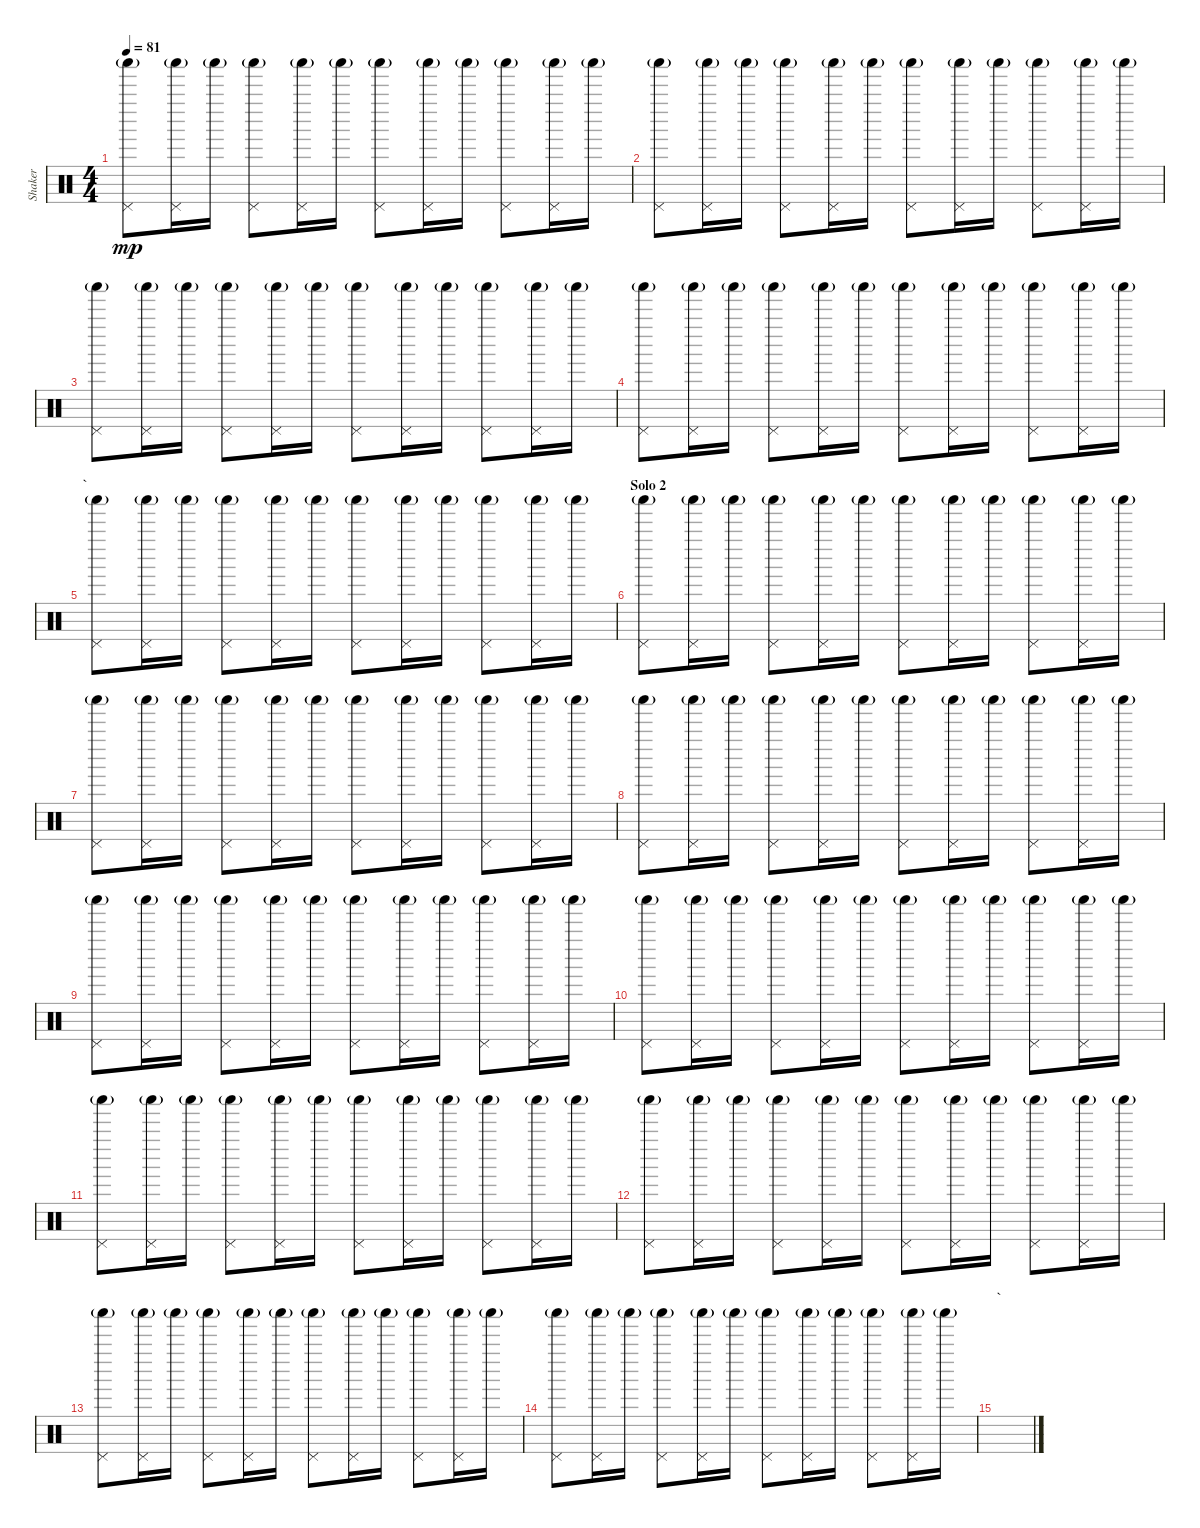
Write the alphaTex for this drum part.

\track ("Shaker" "Shaker") {instrument percussion}
\staff {score}
\articulation defaults
\ts (4 4)
\tempo 81
\clef neutral
\ks c
("Pedal Hi-Hat (hit)" "Shaker (hit)"{g}).8{dy mp} ("Pedal Hi-Hat (hit)" "Shaker (hit)"{g}).16 "Shaker (hit)"{g}.16 ("Pedal Hi-Hat (hit)" "Shaker (hit)"{g}).8 ("Pedal Hi-Hat (hit)" "Shaker (hit)"{g}).16 "Shaker (hit)"{g}.16 ("Pedal Hi-Hat (hit)" "Shaker (hit)"{g}).8 ("Pedal Hi-Hat (hit)" "Shaker (hit)"{g}).16 "Shaker (hit)"{g}.16 ("Pedal Hi-Hat (hit)" "Shaker (hit)"{g}).8 ("Pedal Hi-Hat (hit)" "Shaker (hit)"{g}).16 "Shaker (hit)"{g}.16 |
("Pedal Hi-Hat (hit)" "Shaker (hit)"{g}).8 ("Pedal Hi-Hat (hit)" "Shaker (hit)"{g}).16 "Shaker (hit)"{g}.16 ("Pedal Hi-Hat (hit)" "Shaker (hit)"{g}).8 ("Pedal Hi-Hat (hit)" "Shaker (hit)"{g}).16 "Shaker (hit)"{g}.16 ("Pedal Hi-Hat (hit)" "Shaker (hit)"{g}).8 ("Pedal Hi-Hat (hit)" "Shaker (hit)"{g}).16 "Shaker (hit)"{g}.16 ("Pedal Hi-Hat (hit)" "Shaker (hit)"{g}).8 ("Pedal Hi-Hat (hit)" "Shaker (hit)"{g}).16 "Shaker (hit)"{g}.16 |
("Pedal Hi-Hat (hit)" "Shaker (hit)"{g}).8 ("Pedal Hi-Hat (hit)" "Shaker (hit)"{g}).16 "Shaker (hit)"{g}.16 ("Pedal Hi-Hat (hit)" "Shaker (hit)"{g}).8 ("Pedal Hi-Hat (hit)" "Shaker (hit)"{g}).16 "Shaker (hit)"{g}.16 ("Pedal Hi-Hat (hit)" "Shaker (hit)"{g}).8 ("Pedal Hi-Hat (hit)" "Shaker (hit)"{g}).16 "Shaker (hit)"{g}.16 ("Pedal Hi-Hat (hit)" "Shaker (hit)"{g}).8 ("Pedal Hi-Hat (hit)" "Shaker (hit)"{g}).16 "Shaker (hit)"{g}.16 |
("Pedal Hi-Hat (hit)" "Shaker (hit)"{g}).8 ("Pedal Hi-Hat (hit)" "Shaker (hit)"{g}).16 "Shaker (hit)"{g}.16 ("Pedal Hi-Hat (hit)" "Shaker (hit)"{g}).8 ("Pedal Hi-Hat (hit)" "Shaker (hit)"{g}).16 "Shaker (hit)"{g}.16 ("Pedal Hi-Hat (hit)" "Shaker (hit)"{g}).8 ("Pedal Hi-Hat (hit)" "Shaker (hit)"{g}).16 "Shaker (hit)"{g}.16 ("Pedal Hi-Hat (hit)" "Shaker (hit)"{g}).8 ("Pedal Hi-Hat (hit)" "Shaker (hit)"{g}).16 "Shaker (hit)"{g}.16 |
\section ("" "`")
("Pedal Hi-Hat (hit)" "Shaker (hit)"{g}).8 ("Pedal Hi-Hat (hit)" "Shaker (hit)"{g}).16 "Shaker (hit)"{g}.16 ("Pedal Hi-Hat (hit)" "Shaker (hit)"{g}).8 ("Pedal Hi-Hat (hit)" "Shaker (hit)"{g}).16 "Shaker (hit)"{g}.16 ("Pedal Hi-Hat (hit)" "Shaker (hit)"{g}).8 ("Pedal Hi-Hat (hit)" "Shaker (hit)"{g}).16 "Shaker (hit)"{g}.16 ("Pedal Hi-Hat (hit)" "Shaker (hit)"{g}).8 ("Pedal Hi-Hat (hit)" "Shaker (hit)"{g}).16 "Shaker (hit)"{g}.16 |
\section ("" "Solo 2")
("Pedal Hi-Hat (hit)" "Shaker (hit)"{g}).8 ("Pedal Hi-Hat (hit)" "Shaker (hit)"{g}).16 "Shaker (hit)"{g}.16 ("Pedal Hi-Hat (hit)" "Shaker (hit)"{g}).8 ("Pedal Hi-Hat (hit)" "Shaker (hit)"{g}).16 "Shaker (hit)"{g}.16 ("Pedal Hi-Hat (hit)" "Shaker (hit)"{g}).8 ("Pedal Hi-Hat (hit)" "Shaker (hit)"{g}).16 "Shaker (hit)"{g}.16 ("Pedal Hi-Hat (hit)" "Shaker (hit)"{g}).8 ("Pedal Hi-Hat (hit)" "Shaker (hit)"{g}).16 "Shaker (hit)"{g}.16 |
("Pedal Hi-Hat (hit)" "Shaker (hit)"{g}).8 ("Pedal Hi-Hat (hit)" "Shaker (hit)"{g}).16 "Shaker (hit)"{g}.16 ("Pedal Hi-Hat (hit)" "Shaker (hit)"{g}).8 ("Pedal Hi-Hat (hit)" "Shaker (hit)"{g}).16 "Shaker (hit)"{g}.16 ("Pedal Hi-Hat (hit)" "Shaker (hit)"{g}).8 ("Pedal Hi-Hat (hit)" "Shaker (hit)"{g}).16 "Shaker (hit)"{g}.16 ("Pedal Hi-Hat (hit)" "Shaker (hit)"{g}).8 ("Pedal Hi-Hat (hit)" "Shaker (hit)"{g}).16 "Shaker (hit)"{g}.16 |
("Pedal Hi-Hat (hit)" "Shaker (hit)"{g}).8 ("Pedal Hi-Hat (hit)" "Shaker (hit)"{g}).16 "Shaker (hit)"{g}.16 ("Pedal Hi-Hat (hit)" "Shaker (hit)"{g}).8 ("Pedal Hi-Hat (hit)" "Shaker (hit)"{g}).16 "Shaker (hit)"{g}.16 ("Pedal Hi-Hat (hit)" "Shaker (hit)"{g}).8 ("Pedal Hi-Hat (hit)" "Shaker (hit)"{g}).16 "Shaker (hit)"{g}.16 ("Pedal Hi-Hat (hit)" "Shaker (hit)"{g}).8 ("Pedal Hi-Hat (hit)" "Shaker (hit)"{g}).16 "Shaker (hit)"{g}.16 |
("Pedal Hi-Hat (hit)" "Shaker (hit)"{g}).8 ("Pedal Hi-Hat (hit)" "Shaker (hit)"{g}).16 "Shaker (hit)"{g}.16 ("Pedal Hi-Hat (hit)" "Shaker (hit)"{g}).8 ("Pedal Hi-Hat (hit)" "Shaker (hit)"{g}).16 "Shaker (hit)"{g}.16 ("Pedal Hi-Hat (hit)" "Shaker (hit)"{g}).8 ("Pedal Hi-Hat (hit)" "Shaker (hit)"{g}).16 "Shaker (hit)"{g}.16 ("Pedal Hi-Hat (hit)" "Shaker (hit)"{g}).8 ("Pedal Hi-Hat (hit)" "Shaker (hit)"{g}).16 "Shaker (hit)"{g}.16 |
("Pedal Hi-Hat (hit)" "Shaker (hit)"{g}).8 ("Pedal Hi-Hat (hit)" "Shaker (hit)"{g}).16 "Shaker (hit)"{g}.16 ("Pedal Hi-Hat (hit)" "Shaker (hit)"{g}).8 ("Pedal Hi-Hat (hit)" "Shaker (hit)"{g}).16 "Shaker (hit)"{g}.16 ("Pedal Hi-Hat (hit)" "Shaker (hit)"{g}).8 ("Pedal Hi-Hat (hit)" "Shaker (hit)"{g}).16 "Shaker (hit)"{g}.16 ("Pedal Hi-Hat (hit)" "Shaker (hit)"{g}).8 ("Pedal Hi-Hat (hit)" "Shaker (hit)"{g}).16 "Shaker (hit)"{g}.16 |
("Pedal Hi-Hat (hit)" "Shaker (hit)"{g}).8 ("Pedal Hi-Hat (hit)" "Shaker (hit)"{g}).16 "Shaker (hit)"{g}.16 ("Pedal Hi-Hat (hit)" "Shaker (hit)"{g}).8 ("Pedal Hi-Hat (hit)" "Shaker (hit)"{g}).16 "Shaker (hit)"{g}.16 ("Pedal Hi-Hat (hit)" "Shaker (hit)"{g}).8 ("Pedal Hi-Hat (hit)" "Shaker (hit)"{g}).16 "Shaker (hit)"{g}.16 ("Pedal Hi-Hat (hit)" "Shaker (hit)"{g}).8 ("Pedal Hi-Hat (hit)" "Shaker (hit)"{g}).16 "Shaker (hit)"{g}.16 |
("Pedal Hi-Hat (hit)" "Shaker (hit)"{g}).8 ("Pedal Hi-Hat (hit)" "Shaker (hit)"{g}).16 "Shaker (hit)"{g}.16 ("Pedal Hi-Hat (hit)" "Shaker (hit)"{g}).8 ("Pedal Hi-Hat (hit)" "Shaker (hit)"{g}).16 "Shaker (hit)"{g}.16 ("Pedal Hi-Hat (hit)" "Shaker (hit)"{g}).8 ("Pedal Hi-Hat (hit)" "Shaker (hit)"{g}).16 "Shaker (hit)"{g}.16 ("Pedal Hi-Hat (hit)" "Shaker (hit)"{g}).8 ("Pedal Hi-Hat (hit)" "Shaker (hit)"{g}).16 "Shaker (hit)"{g}.16 |
("Pedal Hi-Hat (hit)" "Shaker (hit)"{g}).8 ("Pedal Hi-Hat (hit)" "Shaker (hit)"{g}).16 "Shaker (hit)"{g}.16 ("Pedal Hi-Hat (hit)" "Shaker (hit)"{g}).8 ("Pedal Hi-Hat (hit)" "Shaker (hit)"{g}).16 "Shaker (hit)"{g}.16 ("Pedal Hi-Hat (hit)" "Shaker (hit)"{g}).8 ("Pedal Hi-Hat (hit)" "Shaker (hit)"{g}).16 "Shaker (hit)"{g}.16 ("Pedal Hi-Hat (hit)" "Shaker (hit)"{g}).8 ("Pedal Hi-Hat (hit)" "Shaker (hit)"{g}).16 "Shaker (hit)"{g}.16 |
("Pedal Hi-Hat (hit)" "Shaker (hit)"{g}).8 ("Pedal Hi-Hat (hit)" "Shaker (hit)"{g}).16 "Shaker (hit)"{g}.16 ("Pedal Hi-Hat (hit)" "Shaker (hit)"{g}).8 ("Pedal Hi-Hat (hit)" "Shaker (hit)"{g}).16 "Shaker (hit)"{g}.16 ("Pedal Hi-Hat (hit)" "Shaker (hit)"{g}).8 ("Pedal Hi-Hat (hit)" "Shaker (hit)"{g}).16 "Shaker (hit)"{g}.16 ("Pedal Hi-Hat (hit)" "Shaker (hit)"{g}).8 ("Pedal Hi-Hat (hit)" "Shaker (hit)"{g}).16 "Shaker (hit)"{g}.16 |
\section ("" "`")
